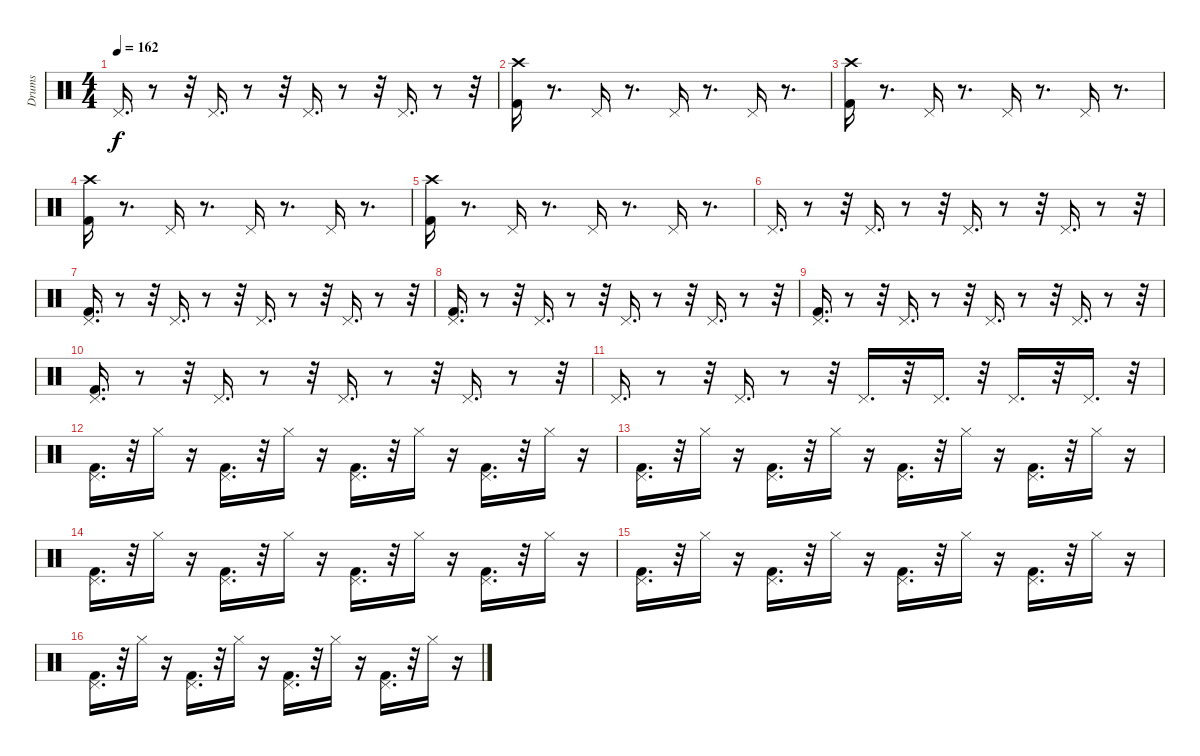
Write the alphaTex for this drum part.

\track ("Drums" "Drums") {instrument percussion}
\staff {score}
\articulation defaults
\ts (4 4)
\tempo 162
\clef neutral
\ks c "Pedal Hi-Hat (hit)".16{d dy f}
r.8 r.32 "Pedal Hi-Hat (hit)".16{d} r.8 r.32 "Pedal Hi-Hat (hit)".16{d} r.8 r.32 "Pedal Hi-Hat (hit)".16{d} r.8 r.32 |
("Crash high (hit)" "Kick (hit) 2").16 r.8{d} "Pedal Hi-Hat (hit)".16 r.8{d} "Pedal Hi-Hat (hit)".16 r.8{d} "Pedal Hi-Hat (hit)".16 r.8{d} |
("Crash high (hit)" "Kick (hit) 2").16 r.8{d} "Pedal Hi-Hat (hit)".16 r.8{d} "Pedal Hi-Hat (hit)".16 r.8{d} "Pedal Hi-Hat (hit)".16 r.8{d} |
("Crash high (hit)" "Kick (hit) 2").16 r.8{d} "Pedal Hi-Hat (hit)".16 r.8{d} "Pedal Hi-Hat (hit)".16 r.8{d} "Pedal Hi-Hat (hit)".16 r.8{d} |
("Crash high (hit)" "Kick (hit) 2").16 r.8{d} "Pedal Hi-Hat (hit)".16 r.8{d} "Pedal Hi-Hat (hit)".16 r.8{d} "Pedal Hi-Hat (hit)".16 r.8{d} |
"Pedal Hi-Hat (hit)".16{d} r.8 r.32 "Pedal Hi-Hat (hit)".16{d} r.8 r.32 "Pedal Hi-Hat (hit)".16{d} r.8 r.32 "Pedal Hi-Hat (hit)".16{d} r.8 r.32 |
("Kick (hit) 2" "Pedal Hi-Hat (hit)").16{d} r.8 r.32 "Pedal Hi-Hat (hit)".16{d} r.8 r.32 "Pedal Hi-Hat (hit)".16{d} r.8 r.32 "Pedal Hi-Hat (hit)".16{d} r.8 r.32 |
("Kick (hit) 2" "Pedal Hi-Hat (hit)").16{d} r.8 r.32 "Pedal Hi-Hat (hit)".16{d} r.8 r.32 "Pedal Hi-Hat (hit)".16{d} r.8 r.32 "Pedal Hi-Hat (hit)".16{d} r.8 r.32 |
("Kick (hit) 2" "Pedal Hi-Hat (hit)").16{d} r.8 r.32 "Pedal Hi-Hat (hit)".16{d} r.8 r.32 "Pedal Hi-Hat (hit)".16{d} r.8 r.32 "Pedal Hi-Hat (hit)".16{d} r.8 r.32 |
("Kick (hit) 2" "Pedal Hi-Hat (hit)").16{d} r.8 r.32 "Pedal Hi-Hat (hit)".16{d} r.8 r.32 "Pedal Hi-Hat (hit)".16{d} r.8 r.32 "Pedal Hi-Hat (hit)".16{d} r.8 r.32 |
"Pedal Hi-Hat (hit)".16{d} r.8 r.32 "Pedal Hi-Hat (hit)".16{d} r.8 r.32 "Pedal Hi-Hat (hit)".16{d} r.32 "Pedal Hi-Hat (hit)".16{d} r.32 "Pedal Hi-Hat (hit)".16{d} r.32 "Pedal Hi-Hat (hit)".16{d} r.32 |
("Kick (hit) 2" "Pedal Hi-Hat (hit)").16{d} r.32 "Hi-Hat (closed)".16 r.16 ("Kick (hit) 2" "Pedal Hi-Hat (hit)").16{d} r.32 "Hi-Hat (closed)".16 r.16 ("Kick (hit) 2" "Pedal Hi-Hat (hit)").16{d} r.32 "Hi-Hat (closed)".16 r.16 ("Kick (hit) 2" "Pedal Hi-Hat (hit)").16{d} r.32 "Hi-Hat (closed)".16 r.16 |
("Kick (hit) 2" "Pedal Hi-Hat (hit)").16{d} r.32 "Hi-Hat (closed)".16 r.16 ("Kick (hit) 2" "Pedal Hi-Hat (hit)").16{d} r.32 "Hi-Hat (closed)".16 r.16 ("Kick (hit) 2" "Pedal Hi-Hat (hit)").16{d} r.32 "Hi-Hat (closed)".16 r.16 ("Kick (hit) 2" "Pedal Hi-Hat (hit)").16{d} r.32 "Hi-Hat (closed)".16 r.16 |
("Kick (hit) 2" "Pedal Hi-Hat (hit)").16{d} r.32 "Hi-Hat (closed)".16 r.16 ("Kick (hit) 2" "Pedal Hi-Hat (hit)").16{d} r.32 "Hi-Hat (closed)".16 r.16 ("Kick (hit) 2" "Pedal Hi-Hat (hit)").16{d} r.32 "Hi-Hat (closed)".16 r.16 ("Kick (hit) 2" "Pedal Hi-Hat (hit)").16{d} r.32 "Hi-Hat (closed)".16 r.16 |
("Kick (hit) 2" "Pedal Hi-Hat (hit)").16{d} r.32 "Hi-Hat (closed)".16 r.16 ("Kick (hit) 2" "Pedal Hi-Hat (hit)").16{d} r.32 "Hi-Hat (closed)".16 r.16 ("Kick (hit) 2" "Pedal Hi-Hat (hit)").16{d} r.32 "Hi-Hat (closed)".16 r.16 ("Kick (hit) 2" "Pedal Hi-Hat (hit)").16{d} r.32 "Hi-Hat (closed)".16 r.16 |
("Kick (hit) 2" "Pedal Hi-Hat (hit)").16{d} r.32 "Hi-Hat (closed)".16 r.16 ("Kick (hit) 2" "Pedal Hi-Hat (hit)").16{d} r.32 "Hi-Hat (closed)".16 r.16 ("Kick (hit) 2" "Pedal Hi-Hat (hit)").16{d} r.32 "Hi-Hat (closed)".16 r.16 ("Kick (hit) 2" "Pedal Hi-Hat (hit)").16{d} r.32 "Hi-Hat (closed)".16 r.16
